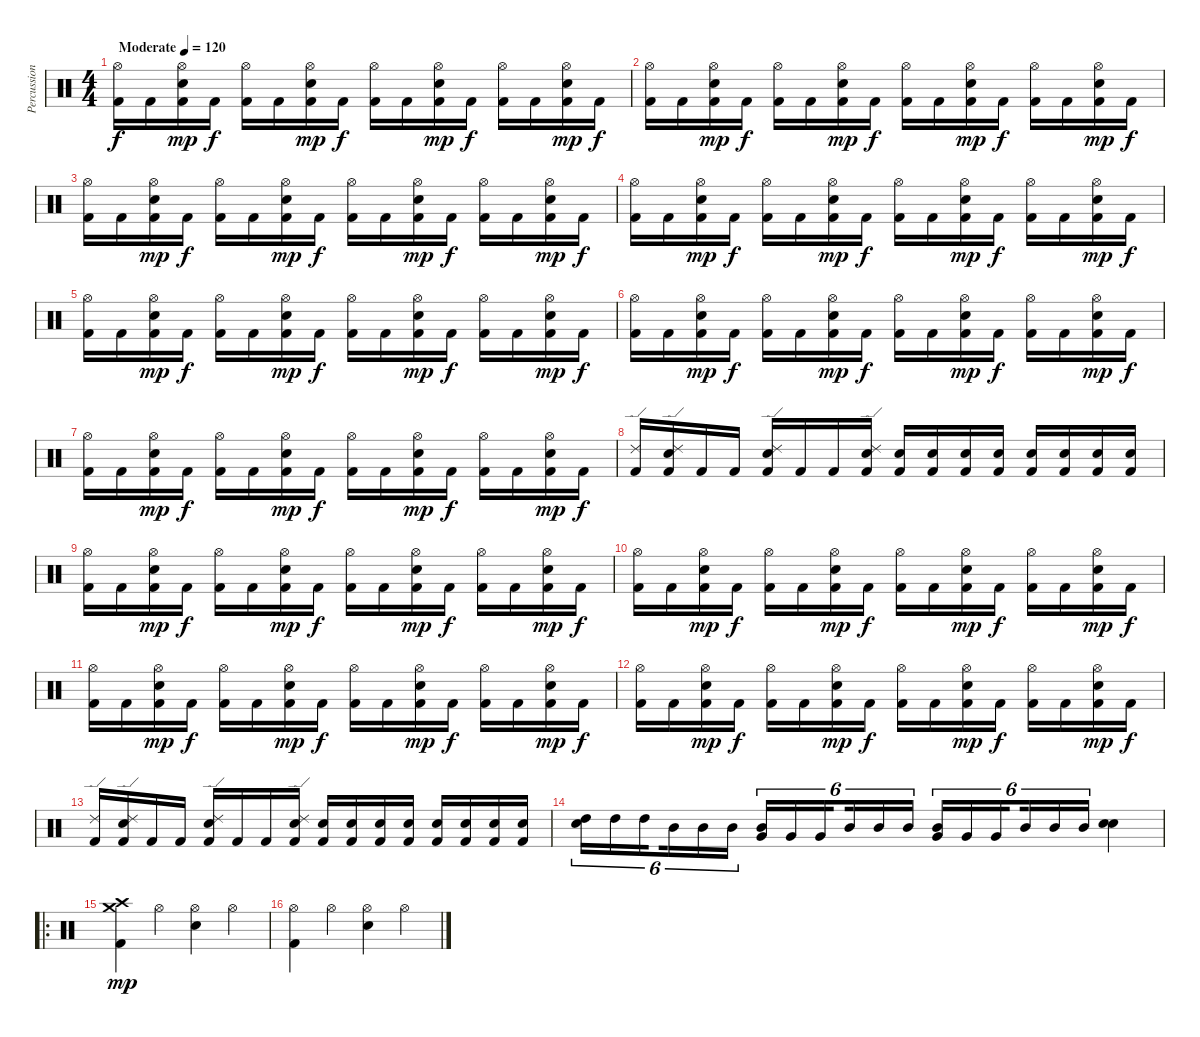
\track ("Percussion" "Percussion") {instrument percussion}
\staff {score}
\articulation defaults
\ts (4 4)
\tempo (120 "Moderate")
\clef neutral
\ks c
("Hi-Hat (open)" "Kick (hit) 2").16{dy f} "Kick (hit) 2".16 ("Hi-Hat (open)" "Electric Snare (hit)" "Kick (hit) 2").16{dy mp} "Kick (hit) 2".16{dy f} ("Hi-Hat (open)" "Kick (hit) 2").16 "Kick (hit) 2".16 ("Hi-Hat (open)" "Electric Snare (hit)" "Kick (hit) 2").16{dy mp} "Kick (hit) 2".16{dy f} ("Hi-Hat (open)" "Kick (hit) 2").16 "Kick (hit) 2".16 ("Hi-Hat (open)" "Electric Snare (hit)" "Kick (hit) 2").16{dy mp} "Kick (hit) 2".16{dy f} ("Hi-Hat (open)" "Kick (hit) 2").16 "Kick (hit) 2".16 ("Hi-Hat (open)" "Electric Snare (hit)" "Kick (hit) 2").16{dy mp} "Kick (hit) 2".16{dy f} |
("Hi-Hat (open)" "Kick (hit) 2").16 "Kick (hit) 2".16 ("Hi-Hat (open)" "Electric Snare (hit)" "Kick (hit) 2").16{dy mp} "Kick (hit) 2".16{dy f} ("Hi-Hat (open)" "Kick (hit) 2").16 "Kick (hit) 2".16 ("Hi-Hat (open)" "Electric Snare (hit)" "Kick (hit) 2").16{dy mp} "Kick (hit) 2".16{dy f} ("Hi-Hat (open)" "Kick (hit) 2").16 "Kick (hit) 2".16 ("Hi-Hat (open)" "Electric Snare (hit)" "Kick (hit) 2").16{dy mp} "Kick (hit) 2".16{dy f} ("Hi-Hat (open)" "Kick (hit) 2").16 "Kick (hit) 2".16 ("Hi-Hat (open)" "Electric Snare (hit)" "Kick (hit) 2").16{dy mp} "Kick (hit) 2".16{dy f} |
("Hi-Hat (open)" "Kick (hit) 2").16 "Kick (hit) 2".16 ("Hi-Hat (open)" "Electric Snare (hit)" "Kick (hit) 2").16{dy mp} "Kick (hit) 2".16{dy f} ("Hi-Hat (open)" "Kick (hit) 2").16 "Kick (hit) 2".16 ("Hi-Hat (open)" "Electric Snare (hit)" "Kick (hit) 2").16{dy mp} "Kick (hit) 2".16{dy f} ("Hi-Hat (open)" "Kick (hit) 2").16 "Kick (hit) 2".16 ("Hi-Hat (open)" "Electric Snare (hit)" "Kick (hit) 2").16{dy mp} "Kick (hit) 2".16{dy f} ("Hi-Hat (open)" "Kick (hit) 2").16 "Kick (hit) 2".16 ("Hi-Hat (open)" "Electric Snare (hit)" "Kick (hit) 2").16{dy mp} "Kick (hit) 2".16{dy f} |
("Hi-Hat (open)" "Kick (hit) 2").16 "Kick (hit) 2".16 ("Hi-Hat (open)" "Electric Snare (hit)" "Kick (hit) 2").16{dy mp} "Kick (hit) 2".16{dy f} ("Hi-Hat (open)" "Kick (hit) 2").16 "Kick (hit) 2".16 ("Hi-Hat (open)" "Electric Snare (hit)" "Kick (hit) 2").16{dy mp} "Kick (hit) 2".16{dy f} ("Hi-Hat (open)" "Kick (hit) 2").16 "Kick (hit) 2".16 ("Hi-Hat (open)" "Electric Snare (hit)" "Kick (hit) 2").16{dy mp} "Kick (hit) 2".16{dy f} ("Hi-Hat (open)" "Kick (hit) 2").16 "Kick (hit) 2".16 ("Hi-Hat (open)" "Electric Snare (hit)" "Kick (hit) 2").16{dy mp} "Kick (hit) 2".16{dy f} |
("Hi-Hat (open)" "Kick (hit) 2").16 "Kick (hit) 2".16 ("Hi-Hat (open)" "Electric Snare (hit)" "Kick (hit) 2").16{dy mp} "Kick (hit) 2".16{dy f} ("Hi-Hat (open)" "Kick (hit) 2").16 "Kick (hit) 2".16 ("Hi-Hat (open)" "Electric Snare (hit)" "Kick (hit) 2").16{dy mp} "Kick (hit) 2".16{dy f} ("Hi-Hat (open)" "Kick (hit) 2").16 "Kick (hit) 2".16 ("Hi-Hat (open)" "Electric Snare (hit)" "Kick (hit) 2").16{dy mp} "Kick (hit) 2".16{dy f} ("Hi-Hat (open)" "Kick (hit) 2").16 "Kick (hit) 2".16 ("Hi-Hat (open)" "Electric Snare (hit)" "Kick (hit) 2").16{dy mp} "Kick (hit) 2".16{dy f} |
("Hi-Hat (open)" "Kick (hit) 2").16 "Kick (hit) 2".16 ("Hi-Hat (open)" "Electric Snare (hit)" "Kick (hit) 2").16{dy mp} "Kick (hit) 2".16{dy f} ("Hi-Hat (open)" "Kick (hit) 2").16 "Kick (hit) 2".16 ("Hi-Hat (open)" "Electric Snare (hit)" "Kick (hit) 2").16{dy mp} "Kick (hit) 2".16{dy f} ("Hi-Hat (open)" "Kick (hit) 2").16 "Kick (hit) 2".16 ("Hi-Hat (open)" "Electric Snare (hit)" "Kick (hit) 2").16{dy mp} "Kick (hit) 2".16{dy f} ("Hi-Hat (open)" "Kick (hit) 2").16 "Kick (hit) 2".16 ("Hi-Hat (open)" "Electric Snare (hit)" "Kick (hit) 2").16{dy mp} "Kick (hit) 2".16{dy f} |
("Hi-Hat (open)" "Kick (hit) 2").16 "Kick (hit) 2".16 ("Hi-Hat (open)" "Electric Snare (hit)" "Kick (hit) 2").16{dy mp} "Kick (hit) 2".16{dy f} ("Hi-Hat (open)" "Kick (hit) 2").16 "Kick (hit) 2".16 ("Hi-Hat (open)" "Electric Snare (hit)" "Kick (hit) 2").16{dy mp} "Kick (hit) 2".16{dy f} ("Hi-Hat (open)" "Kick (hit) 2").16 "Kick (hit) 2".16 ("Hi-Hat (open)" "Electric Snare (hit)" "Kick (hit) 2").16{dy mp} "Kick (hit) 2".16{dy f} ("Hi-Hat (open)" "Kick (hit) 2").16 "Kick (hit) 2".16 ("Hi-Hat (open)" "Electric Snare (hit)" "Kick (hit) 2").16{dy mp} "Kick (hit) 2".16{dy f} |
("Ride (edge) 2" "Kick (hit) 2").16 ("Ride (edge) 2" "Snare (hit) 2" "Kick (hit) 2").16 "Kick (hit) 2".16 "Kick (hit) 2".16 ("Ride (edge) 2" "Snare (hit) 2" "Kick (hit) 2").16 "Kick (hit) 2".16 "Kick (hit) 2".16 ("Ride (edge) 2" "Snare (hit) 2" "Kick (hit) 2").16 ("Snare (hit) 2" "Kick (hit) 2").16 ("Snare (hit) 2" "Kick (hit) 2").16 ("Snare (hit) 2" "Kick (hit) 2").16 ("Snare (hit) 2" "Kick (hit) 2").16 ("Snare (hit) 2" "Kick (hit) 2").16 ("Snare (hit) 2" "Kick (hit) 2").16 ("Snare (hit) 2" "Kick (hit) 2").16 ("Snare (hit) 2" "Kick (hit) 2").16 |
("Hi-Hat (open)" "Kick (hit) 2").16 "Kick (hit) 2".16 ("Hi-Hat (open)" "Electric Snare (hit)" "Kick (hit) 2").16{dy mp} "Kick (hit) 2".16{dy f} ("Hi-Hat (open)" "Kick (hit) 2").16 "Kick (hit) 2".16 ("Hi-Hat (open)" "Electric Snare (hit)" "Kick (hit) 2").16{dy mp} "Kick (hit) 2".16{dy f} ("Hi-Hat (open)" "Kick (hit) 2").16 "Kick (hit) 2".16 ("Hi-Hat (open)" "Electric Snare (hit)" "Kick (hit) 2").16{dy mp} "Kick (hit) 2".16{dy f} ("Hi-Hat (open)" "Kick (hit) 2").16 "Kick (hit) 2".16 ("Hi-Hat (open)" "Electric Snare (hit)" "Kick (hit) 2").16{dy mp} "Kick (hit) 2".16{dy f} |
("Hi-Hat (open)" "Kick (hit) 2").16 "Kick (hit) 2".16 ("Hi-Hat (open)" "Electric Snare (hit)" "Kick (hit) 2").16{dy mp} "Kick (hit) 2".16{dy f} ("Hi-Hat (open)" "Kick (hit) 2").16 "Kick (hit) 2".16 ("Hi-Hat (open)" "Electric Snare (hit)" "Kick (hit) 2").16{dy mp} "Kick (hit) 2".16{dy f} ("Hi-Hat (open)" "Kick (hit) 2").16 "Kick (hit) 2".16 ("Hi-Hat (open)" "Electric Snare (hit)" "Kick (hit) 2").16{dy mp} "Kick (hit) 2".16{dy f} ("Hi-Hat (open)" "Kick (hit) 2").16 "Kick (hit) 2".16 ("Hi-Hat (open)" "Electric Snare (hit)" "Kick (hit) 2").16{dy mp} "Kick (hit) 2".16{dy f} |
("Hi-Hat (open)" "Kick (hit) 2").16 "Kick (hit) 2".16 ("Hi-Hat (open)" "Electric Snare (hit)" "Kick (hit) 2").16{dy mp} "Kick (hit) 2".16{dy f} ("Hi-Hat (open)" "Kick (hit) 2").16 "Kick (hit) 2".16 ("Hi-Hat (open)" "Electric Snare (hit)" "Kick (hit) 2").16{dy mp} "Kick (hit) 2".16{dy f} ("Hi-Hat (open)" "Kick (hit) 2").16 "Kick (hit) 2".16 ("Hi-Hat (open)" "Electric Snare (hit)" "Kick (hit) 2").16{dy mp} "Kick (hit) 2".16{dy f} ("Hi-Hat (open)" "Kick (hit) 2").16 "Kick (hit) 2".16 ("Hi-Hat (open)" "Electric Snare (hit)" "Kick (hit) 2").16{dy mp} "Kick (hit) 2".16{dy f} |
("Hi-Hat (open)" "Kick (hit) 2").16 "Kick (hit) 2".16 ("Hi-Hat (open)" "Electric Snare (hit)" "Kick (hit) 2").16{dy mp} "Kick (hit) 2".16{dy f} ("Hi-Hat (open)" "Kick (hit) 2").16 "Kick (hit) 2".16 ("Hi-Hat (open)" "Electric Snare (hit)" "Kick (hit) 2").16{dy mp} "Kick (hit) 2".16{dy f} ("Hi-Hat (open)" "Kick (hit) 2").16 "Kick (hit) 2".16 ("Hi-Hat (open)" "Electric Snare (hit)" "Kick (hit) 2").16{dy mp} "Kick (hit) 2".16{dy f} ("Hi-Hat (open)" "Kick (hit) 2").16 "Kick (hit) 2".16 ("Hi-Hat (open)" "Electric Snare (hit)" "Kick (hit) 2").16{dy mp} "Kick (hit) 2".16{dy f} |
("Ride (edge) 2" "Kick (hit) 2").16 ("Ride (edge) 2" "Snare (hit) 2" "Kick (hit) 2").16 "Kick (hit) 2".16 "Kick (hit) 2".16 ("Ride (edge) 2" "Snare (hit) 2" "Kick (hit) 2").16 "Kick (hit) 2".16 "Kick (hit) 2".16 ("Ride (edge) 2" "Snare (hit) 2" "Kick (hit) 2").16 ("Snare (hit) 2" "Kick (hit) 2").16 ("Snare (hit) 2" "Kick (hit) 2").16 ("Snare (hit) 2" "Kick (hit) 2").16 ("Snare (hit) 2" "Kick (hit) 2").16 ("Snare (hit) 2" "Kick (hit) 2").16 ("Snare (hit) 2" "Kick (hit) 2").16 ("Snare (hit) 2" "Kick (hit) 2").16 ("Snare (hit) 2" "Kick (hit) 2").16 |
("Electric Snare (hit)" "High Tom (hit)").16{tu (6 4)} "High Tom (hit)".16{tu (6 4)} "High Tom (hit)".16{tu (6 4) beam splitsecondary} "Mid Tom (hit)".16{tu (6 4)} "Mid Tom (hit)".16{tu (6 4)} "Mid Tom (hit)".16{tu (6 4)} ("Very Low Tom (hit)" "Mid Tom (hit)").16{tu (6 4)} "Very Low Tom (hit)".16{tu (6 4)} "Very Low Tom (hit)".16{tu (6 4) beam splitsecondary} "Mid Tom (hit)".16{tu (6 4)} "Mid Tom (hit)".16{tu (6 4)} "Mid Tom (hit)".16{tu (6 4)} ("Very Low Tom (hit)" "Mid Tom (hit)").16{tu (6 4)} "Very Low Tom (hit)".16{tu (6 4)} "Very Low Tom (hit)".16{tu (6 4) beam splitsecondary} "Mid Tom (hit)".16{tu (6 4)} "Mid Tom (hit)".16{tu (6 4)} "Mid Tom (hit)".16{tu (6 4)} ("Snare (hit) 2" "Electric Snare (hit)").4 |
\ro
("Kick (hit) 2" "Crash high (hit)" "Crash medium (hit)").4{dy mp} "Hi-Hat (open)".4 ("Snare (hit) 2" "Hi-Hat (open)").4 "Hi-Hat (open)".4 |
("Kick (hit) 2" "Hi-Hat (open)").4 "Hi-Hat (open)".4 ("Snare (hit) 2" "Hi-Hat (open)").4 "Hi-Hat (open)".4
